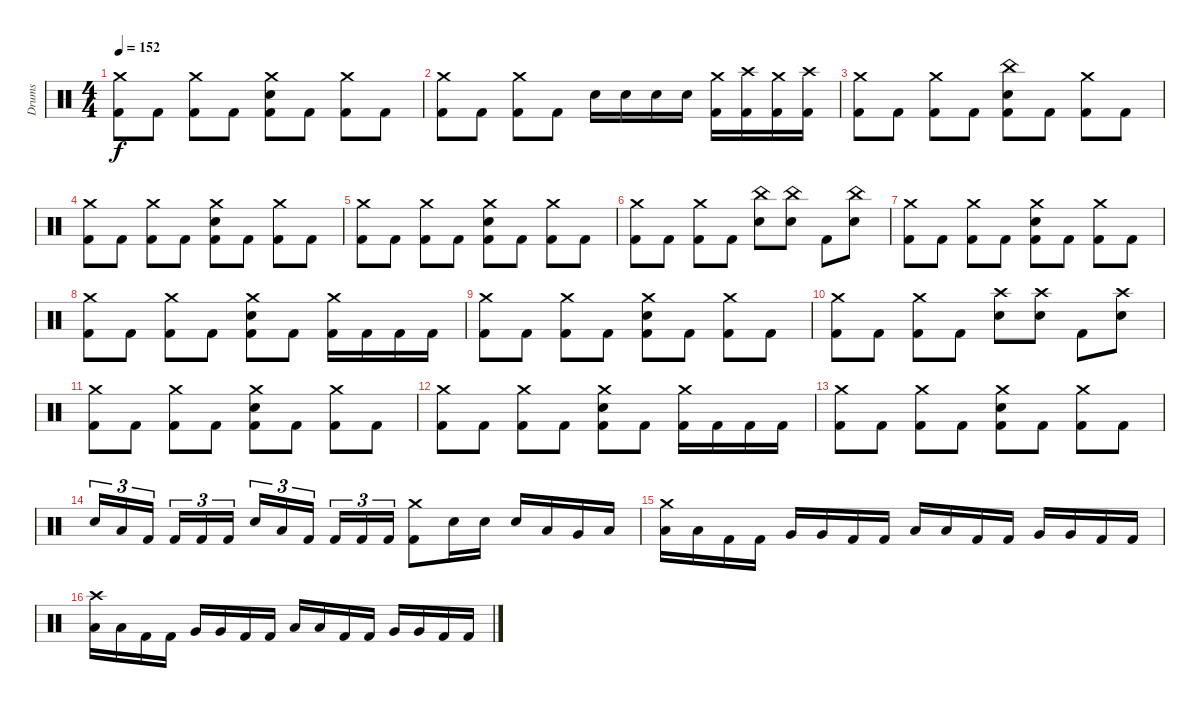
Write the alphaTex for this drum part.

\track ("Drums" "Drums") {instrument percussion}
\staff {score}
\articulation defaults
\ts (4 4)
\tempo 152
\clef neutral
\ks c
("Crash medium (hit)" "Kick (hit) 2").8{dy f} "Kick (hit) 2".8 ("Crash medium (hit)" "Kick (hit) 2").8 "Kick (hit) 2".8 ("Crash medium (hit)" "Electric Snare (hit)" "Kick (hit) 2").8 "Kick (hit) 2".8 ("Crash medium (hit)" "Kick (hit) 2").8 "Kick (hit) 2".8 |
("Crash medium (hit)" "Kick (hit) 2").8 "Kick (hit) 2".8 ("Crash medium (hit)" "Kick (hit) 2").8 "Kick (hit) 2".8 "Electric Snare (hit)".16 "Electric Snare (hit)".16 "Electric Snare (hit)".16 "Electric Snare (hit)".16 ("Crash medium (hit)" "Kick (hit) 2").16 ("Crash high (hit)" "Kick (hit) 2").16 ("Crash medium (hit)" "Kick (hit) 2").16 ("Crash high (hit)" "Kick (hit) 2").16 |
("Crash medium (hit)" "Kick (hit) 2").8 "Kick (hit) 2".8 ("Crash medium (hit)" "Kick (hit) 2").8 "Kick (hit) 2".8 ("China (hit)" "Electric Snare (hit)" "Kick (hit) 2").8 "Kick (hit) 2".8 ("Crash medium (hit)" "Kick (hit) 2").8 "Kick (hit) 2".8 |
("Crash medium (hit)" "Kick (hit) 2").8 "Kick (hit) 2".8 ("Crash medium (hit)" "Kick (hit) 2").8 "Kick (hit) 2".8 ("Crash medium (hit)" "Electric Snare (hit)" "Kick (hit) 2").8 "Kick (hit) 2".8 ("Crash medium (hit)" "Kick (hit) 2").8 "Kick (hit) 2".8 |
("Crash medium (hit)" "Kick (hit) 2").8 "Kick (hit) 2".8 ("Crash medium (hit)" "Kick (hit) 2").8 "Kick (hit) 2".8 ("Crash medium (hit)" "Electric Snare (hit)" "Kick (hit) 2").8 "Kick (hit) 2".8 ("Crash medium (hit)" "Kick (hit) 2").8 "Kick (hit) 2".8 |
("Crash medium (hit)" "Kick (hit) 2").8 "Kick (hit) 2".8 ("Crash medium (hit)" "Kick (hit) 2").8 "Kick (hit) 2".8 ("China (hit)" "Electric Snare (hit)").8 ("China (hit)" "Electric Snare (hit)").8 "Kick (hit) 2".8 ("China (hit)" "Electric Snare (hit)").8 |
("Crash medium (hit)" "Kick (hit) 2").8 "Kick (hit) 2".8 ("Crash medium (hit)" "Kick (hit) 2").8 "Kick (hit) 2".8 ("Crash medium (hit)" "Electric Snare (hit)" "Kick (hit) 2").8 "Kick (hit) 2".8 ("Crash medium (hit)" "Kick (hit) 2").8 "Kick (hit) 2".8 |
("Crash medium (hit)" "Kick (hit) 2").8 "Kick (hit) 2".8 ("Crash medium (hit)" "Kick (hit) 2").8 "Kick (hit) 2".8 ("Crash medium (hit)" "Electric Snare (hit)" "Kick (hit) 2").8 "Kick (hit) 2".8 ("Crash medium (hit)" "Kick (hit) 2").16 "Kick (hit) 2".16 "Kick (hit) 2".16 "Kick (hit) 2".16 |
("Crash medium (hit)" "Kick (hit) 2").8 "Kick (hit) 2".8 ("Crash medium (hit)" "Kick (hit) 2").8 "Kick (hit) 2".8 ("Crash medium (hit)" "Electric Snare (hit)" "Kick (hit) 2").8 "Kick (hit) 2".8 ("Crash medium (hit)" "Kick (hit) 2").8 "Kick (hit) 2".8 |
("Crash medium (hit)" "Kick (hit) 2").8 "Kick (hit) 2".8 ("Crash medium (hit)" "Kick (hit) 2").8 "Kick (hit) 2".8 ("Crash high (hit)" "Electric Snare (hit)").8 ("Crash high (hit)" "Electric Snare (hit)").8 "Kick (hit) 2".8 ("Crash high (hit)" "Electric Snare (hit)").8 |
("Crash medium (hit)" "Kick (hit) 2").8 "Kick (hit) 2".8 ("Crash medium (hit)" "Kick (hit) 2").8 "Kick (hit) 2".8 ("Crash medium (hit)" "Electric Snare (hit)" "Kick (hit) 2").8 "Kick (hit) 2".8 ("Crash medium (hit)" "Kick (hit) 2").8 "Kick (hit) 2".8 |
("Crash medium (hit)" "Kick (hit) 2").8 "Kick (hit) 2".8 ("Crash medium (hit)" "Kick (hit) 2").8 "Kick (hit) 2".8 ("Crash medium (hit)" "Electric Snare (hit)" "Kick (hit) 2").8 "Kick (hit) 2".8 ("Crash medium (hit)" "Kick (hit) 2").16 "Kick (hit) 2".16 "Kick (hit) 2".16 "Kick (hit) 2".16 |
("Crash medium (hit)" "Kick (hit) 2").8 "Kick (hit) 2".8 ("Crash medium (hit)" "Kick (hit) 2").8 "Kick (hit) 2".8 ("Crash medium (hit)" "Electric Snare (hit)" "Kick (hit) 2").8 "Kick (hit) 2".8 ("Crash medium (hit)" "Kick (hit) 2").8 "Kick (hit) 2".8 |
"Electric Snare (hit)".16{tu (3 2)} "Low Tom (hit)".16{tu (3 2)} "Kick (hit) 2".16{tu (3 2)} "Kick (hit) 2".16{tu (3 2)} "Kick (hit) 2".16{tu (3 2)} "Kick (hit) 2".16{tu (3 2)} "Electric Snare (hit)".16{tu (3 2)} "Low Tom (hit)".16{tu (3 2)} "Kick (hit) 2".16{tu (3 2)} "Kick (hit) 2".16{tu (3 2)} "Kick (hit) 2".16{tu (3 2)} "Kick (hit) 2".16{tu (3 2)} ("Crash medium (hit)" "Kick (hit) 2").8 "Electric Snare (hit)".16 "Electric Snare (hit)".16 "Electric Snare (hit)".16 "Low Tom (hit)".16 "Very Low Tom (hit)".16 "Low Floor Tom (hit)".16 |
("Crash medium (hit)" "Low Tom (hit)").16 "Low Tom (hit)".16 "Kick (hit) 2".16 "Kick (hit) 2".16 "Very Low Tom (hit)".16 "Very Low Tom (hit)".16 "Kick (hit) 2".16 "Kick (hit) 2".16 "Low Floor Tom (hit)".16 "Low Floor Tom (hit)".16 "Kick (hit) 2".16 "Kick (hit) 2".16 "Very Low Tom (hit)".16 "Very Low Tom (hit)".16 "Kick (hit) 2".16 "Kick (hit) 2".16 |
("Crash high (hit)" "Low Tom (hit)").16 "Low Tom (hit)".16 "Kick (hit) 2".16 "Kick (hit) 2".16 "Very Low Tom (hit)".16 "Very Low Tom (hit)".16 "Kick (hit) 2".16 "Kick (hit) 2".16 "Low Floor Tom (hit)".16 "Low Floor Tom (hit)".16 "Kick (hit) 2".16 "Kick (hit) 2".16 "Very Low Tom (hit)".16 "Very Low Tom (hit)".16 "Kick (hit) 2".16 "Kick (hit) 2".16
